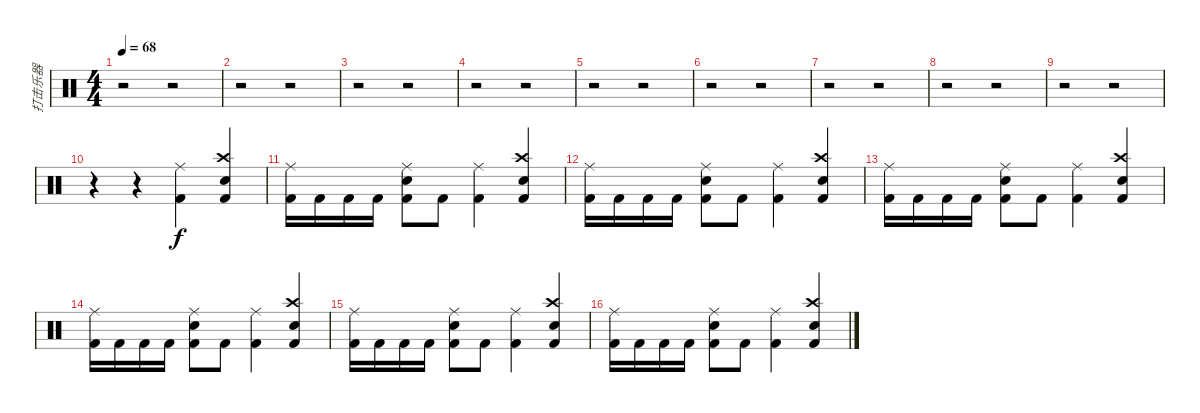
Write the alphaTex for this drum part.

\track ("打击乐器" "打击乐器") {instrument percussion}
\staff {score}
\articulation defaults
\ts (4 4)
\tempo 68
\clef neutral
\ks c
r.2{dy f} r.2 |
r.2 r.2 |
r.2 r.2 |
r.2 r.2 |
r.2 r.2 |
r.2 r.2 |
r.2 r.2 |
r.2 r.2 |
r.2 r.2 |
r.4 r.4 ("Ride (middle)" "Kick (hit) 2").4 ("Crash high (hit)" "Snare (hit) 2" "Kick (hit) 2").4 |
("Ride (middle)" "Kick (hit) 2").16 "Kick (hit) 2".16 "Kick (hit) 2".16 "Kick (hit) 2".16 ("Ride (middle)" "Snare (hit) 2" "Kick (hit) 2").8 "Kick (hit) 2".8 ("Ride (middle)" "Kick (hit) 2").4 ("Crash high (hit)" "Snare (hit) 2" "Kick (hit) 2").4 |
("Ride (middle)" "Kick (hit) 2").16 "Kick (hit) 2".16 "Kick (hit) 2".16 "Kick (hit) 2".16 ("Ride (middle)" "Snare (hit) 2" "Kick (hit) 2").8 "Kick (hit) 2".8 ("Ride (middle)" "Kick (hit) 2").4 ("Crash high (hit)" "Snare (hit) 2" "Kick (hit) 2").4 |
("Ride (middle)" "Kick (hit) 2").16 "Kick (hit) 2".16 "Kick (hit) 2".16 "Kick (hit) 2".16 ("Ride (middle)" "Snare (hit) 2" "Kick (hit) 2").8 "Kick (hit) 2".8 ("Ride (middle)" "Kick (hit) 2").4 ("Crash high (hit)" "Snare (hit) 2" "Kick (hit) 2").4 |
("Ride (middle)" "Kick (hit) 2").16 "Kick (hit) 2".16 "Kick (hit) 2".16 "Kick (hit) 2".16 ("Ride (middle)" "Snare (hit) 2" "Kick (hit) 2").8 "Kick (hit) 2".8 ("Ride (middle)" "Kick (hit) 2").4 ("Crash high (hit)" "Snare (hit) 2" "Kick (hit) 2").4 |
("Ride (middle)" "Kick (hit) 2").16 "Kick (hit) 2".16 "Kick (hit) 2".16 "Kick (hit) 2".16 ("Ride (middle)" "Snare (hit) 2" "Kick (hit) 2").8 "Kick (hit) 2".8 ("Ride (middle)" "Kick (hit) 2").4 ("Crash high (hit)" "Snare (hit) 2" "Kick (hit) 2").4 |
("Ride (middle)" "Kick (hit) 2").16 "Kick (hit) 2".16 "Kick (hit) 2".16 "Kick (hit) 2".16 ("Ride (middle)" "Snare (hit) 2" "Kick (hit) 2").8 "Kick (hit) 2".8 ("Ride (middle)" "Kick (hit) 2").4 ("Crash high (hit)" "Snare (hit) 2" "Kick (hit) 2").4
